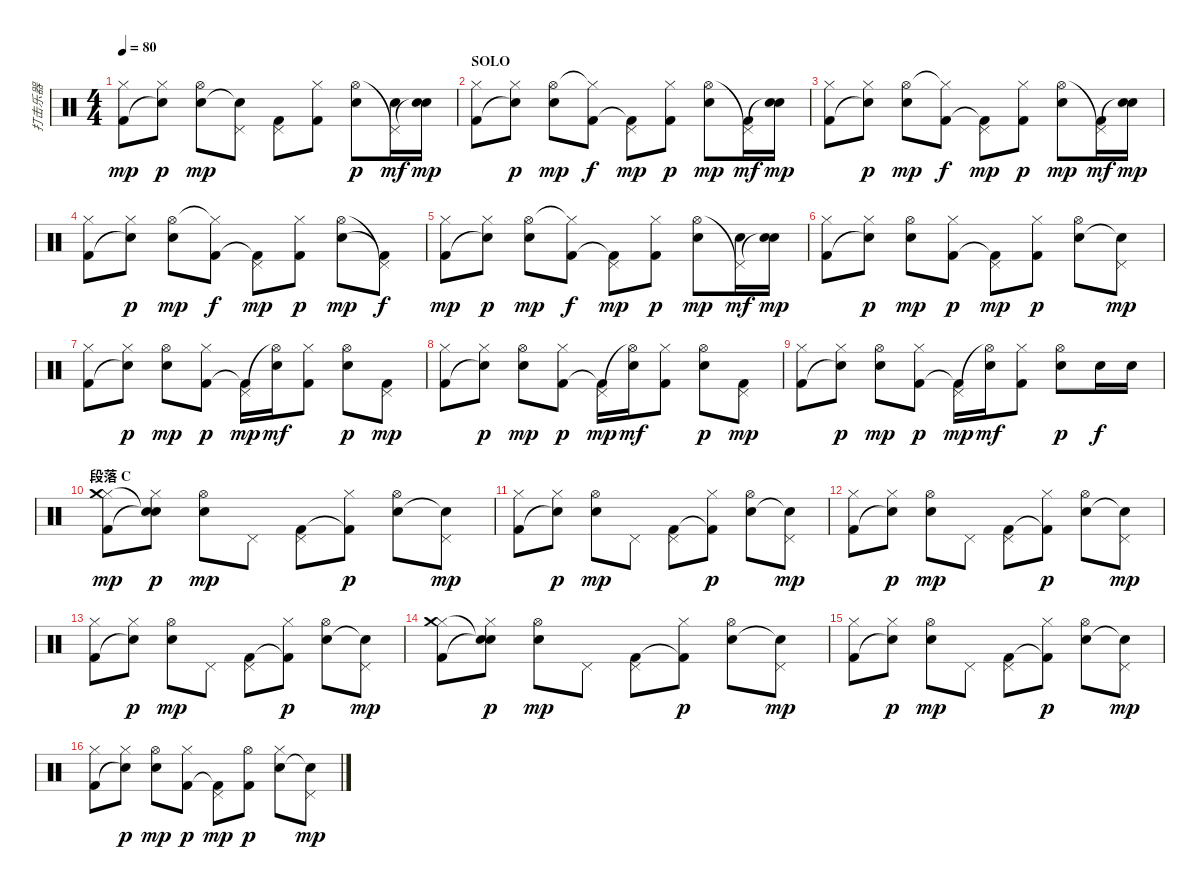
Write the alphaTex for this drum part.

\track ("打击乐器" "打击乐器") {instrument percussion}
\staff {score}
\articulation defaults
\ts (4 4)
\tempo 80
\clef neutral
\ks c
("Hi-Hat (closed)" "Kick (hit) 2").8{dy mp} ("Hi-Hat (closed)" "Snare (hit)"{t}).8{dy p} ("Hi-Hat (open)" "Electric Snare (hit)").8{dy mp} ("Pedal Hi-Hat (hit)" "Snare (hit)"{t}).8 ("Pedal Hi-Hat (hit)" "Kick (hit) 2").8 ("Hi-Hat (closed)" "Kick (hit) 2").8 ("Hi-Hat (open)" "Electric Snare (hit)").8{dy p} ("Pedal Hi-Hat (hit)"{t} "Electric Snare (hit)").16{dy mf} ("Snare (hit)"{t} "Electric Snare (hit)").16{dy mp} |
\section ("" "SOLO")
("Hi-Hat (closed)" "Kick (hit) 2").8 ("Hi-Hat (closed)" "Snare (hit)"{t}).8{dy p} ("Hi-Hat (open)" "Electric Snare (hit)").8{dy mp} ("Hi-Hat (closed)"{t} "Kick (hit) 2").8{dy f} ("Pedal Hi-Hat (hit)" "Kick (hit) 2"{t}).8{dy mp} ("Hi-Hat (closed)" "Kick (hit) 2").8{dy p} ("Hi-Hat (open)" "Electric Snare (hit)").8{dy mp} ("Pedal Hi-Hat (hit)"{t} "Kick (hit) 2").16{dy mf} ("Snare (hit)"{t} "Electric Snare (hit)").16{dy mp} |
("Hi-Hat (closed)" "Kick (hit) 2").8 ("Hi-Hat (closed)" "Snare (hit)"{t}).8{dy p} ("Hi-Hat (open)" "Electric Snare (hit)").8{dy mp} ("Hi-Hat (closed)"{t} "Kick (hit) 2").8{dy f} ("Pedal Hi-Hat (hit)" "Kick (hit) 2"{t}).8{dy mp} ("Hi-Hat (closed)" "Kick (hit) 2").8{dy p} ("Hi-Hat (open)" "Electric Snare (hit)").8{dy mp} ("Pedal Hi-Hat (hit)"{t} "Kick (hit) 2").16{dy mf} ("Snare (hit)"{t} "Electric Snare (hit)").16{dy mp} |
("Hi-Hat (closed)" "Kick (hit) 2").8 ("Hi-Hat (closed)" "Snare (hit)"{t}).8{dy p} ("Hi-Hat (open)" "Electric Snare (hit)").8{dy mp} ("Hi-Hat (closed)"{t} "Kick (hit) 2").8{dy f} ("Pedal Hi-Hat (hit)" "Kick (hit) 2"{t}).8{dy mp} ("Hi-Hat (closed)" "Kick (hit) 2").8{dy p} ("Hi-Hat (open)" "Electric Snare (hit)").8{dy mp} ("Pedal Hi-Hat (hit)"{t} "Kick (hit) 2"{t}).8{dy f} |
("Hi-Hat (closed)" "Kick (hit) 2").8{dy mp} ("Hi-Hat (closed)" "Snare (hit)"{t}).8{dy p} ("Hi-Hat (open)" "Electric Snare (hit)").8{dy mp} ("Hi-Hat (closed)"{t} "Kick (hit) 2").8{dy f} ("Pedal Hi-Hat (hit)" "Kick (hit) 2"{t}).8{dy mp} ("Hi-Hat (closed)" "Kick (hit) 2").8{dy p} ("Hi-Hat (open)" "Electric Snare (hit)").8{dy mp} ("Pedal Hi-Hat (hit)"{t} "Electric Snare (hit)").16{dy mf} ("Snare (hit)"{t} "Electric Snare (hit)").16{dy mp} |
("Hi-Hat (closed)" "Kick (hit) 2").8 ("Hi-Hat (closed)" "Snare (hit)"{t}).8{dy p} ("Hi-Hat (open)" "Electric Snare (hit)").8{dy mp} ("Hi-Hat (closed)" "Kick (hit) 2").8{dy p} ("Pedal Hi-Hat (hit)" "Kick (hit) 2"{t}).8{dy mp} ("Hi-Hat (closed)" "Kick (hit) 2").8{dy p} ("Hi-Hat (open)" "Electric Snare (hit)").8 ("Pedal Hi-Hat (hit)" "Snare (hit)"{t}).8{dy mp} |
("Hi-Hat (closed)" "Kick (hit) 2").8 ("Hi-Hat (closed)" "Snare (hit)"{t}).8{dy p} ("Hi-Hat (open)" "Electric Snare (hit)").8{dy mp} ("Hi-Hat (closed)" "Kick (hit) 2").8{dy p} ("Pedal Hi-Hat (hit)" "Kick (hit) 2"{t}).16{dy mp} ("Hi-Hat (open)"{t} "Electric Snare (hit)").16{dy mf} ("Hi-Hat (closed)" "Kick (hit) 2").8 ("Hi-Hat (open)" "Electric Snare (hit)").8{dy p} ("Pedal Hi-Hat (hit)" "Kick (hit) 2").8{dy mp} |
("Hi-Hat (closed)" "Kick (hit) 2").8 ("Hi-Hat (closed)" "Snare (hit)"{t}).8{dy p} ("Hi-Hat (open)" "Electric Snare (hit)").8{dy mp} ("Hi-Hat (closed)" "Kick (hit) 2").8{dy p} ("Pedal Hi-Hat (hit)" "Kick (hit) 2"{t}).16{dy mp} ("Hi-Hat (open)"{t} "Electric Snare (hit)").16{dy mf} ("Hi-Hat (closed)" "Kick (hit) 2").8 ("Hi-Hat (open)" "Electric Snare (hit)").8{dy p} ("Pedal Hi-Hat (hit)" "Kick (hit) 2").8{dy mp} |
("Hi-Hat (closed)" "Kick (hit) 2").8 ("Hi-Hat (closed)" "Snare (hit)"{t}).8{dy p} ("Hi-Hat (open)" "Electric Snare (hit)").8{dy mp} ("Hi-Hat (closed)" "Kick (hit) 2").8{dy p} ("Pedal Hi-Hat (hit)" "Kick (hit) 2"{t}).16{dy mp} ("Hi-Hat (open)"{t} "Electric Snare (hit)").16{dy mf} ("Hi-Hat (closed)" "Kick (hit) 2").8 ("Hi-Hat (open)" "Electric Snare (hit)").8{dy p} "Electric Snare (hit)".16{dy f} "Electric Snare (hit)".16 |
\section ("" "段落 C")
("Hi-Hat (closed)" "Kick (hit) 2" "Crash medium (hit)").8{dy mp} ("Hi-Hat (closed)" "Snare (hit)"{t} "Snare (hit)"{t}).8{dy p} ("Hi-Hat (open)" "Electric Snare (hit)").8{dy mp} "Pedal Hi-Hat (hit)".8 ("Pedal Hi-Hat (hit)" "Kick (hit) 2").8 ("Hi-Hat (closed)" "Kick (hit) 2"{t}).8{dy p} ("Hi-Hat (open)" "Electric Snare (hit)").8 ("Pedal Hi-Hat (hit)" "Snare (hit)"{t}).8{dy mp} |
("Hi-Hat (closed)" "Kick (hit) 2").8 ("Hi-Hat (closed)" "Snare (hit)"{t}).8{dy p} ("Hi-Hat (open)" "Electric Snare (hit)").8{dy mp} "Pedal Hi-Hat (hit)".8 ("Pedal Hi-Hat (hit)" "Kick (hit) 2").8 ("Hi-Hat (closed)" "Kick (hit) 2"{t}).8{dy p} ("Hi-Hat (open)" "Electric Snare (hit)").8 ("Pedal Hi-Hat (hit)" "Snare (hit)"{t}).8{dy mp} |
("Hi-Hat (closed)" "Kick (hit) 2").8 ("Hi-Hat (closed)" "Snare (hit)"{t}).8{dy p} ("Hi-Hat (open)" "Electric Snare (hit)").8{dy mp} "Pedal Hi-Hat (hit)".8 ("Pedal Hi-Hat (hit)" "Kick (hit) 2").8 ("Hi-Hat (closed)" "Kick (hit) 2"{t}).8{dy p} ("Hi-Hat (open)" "Electric Snare (hit)").8 ("Pedal Hi-Hat (hit)" "Snare (hit)"{t}).8{dy mp} |
("Hi-Hat (closed)" "Kick (hit) 2").8 ("Hi-Hat (closed)" "Snare (hit)"{t}).8{dy p} ("Hi-Hat (open)" "Electric Snare (hit)").8{dy mp} "Pedal Hi-Hat (hit)".8 ("Pedal Hi-Hat (hit)" "Kick (hit) 2").8 ("Hi-Hat (closed)" "Kick (hit) 2"{t}).8{dy p} ("Hi-Hat (open)" "Electric Snare (hit)").8 ("Pedal Hi-Hat (hit)" "Snare (hit)"{t}).8{dy mp} |
("Hi-Hat (closed)" "Kick (hit) 2" "Crash medium (hit)").8 ("Hi-Hat (closed)" "Snare (hit)"{t} "Snare (hit)"{t}).8{dy p} ("Hi-Hat (open)" "Electric Snare (hit)").8{dy mp} "Pedal Hi-Hat (hit)".8 ("Pedal Hi-Hat (hit)" "Kick (hit) 2").8 ("Hi-Hat (closed)" "Kick (hit) 2"{t}).8{dy p} ("Hi-Hat (open)" "Electric Snare (hit)").8 ("Pedal Hi-Hat (hit)" "Snare (hit)"{t}).8{dy mp} |
("Hi-Hat (closed)" "Kick (hit) 2").8 ("Hi-Hat (closed)" "Snare (hit)"{t}).8{dy p} ("Hi-Hat (open)" "Electric Snare (hit)").8{dy mp} "Pedal Hi-Hat (hit)".8 ("Pedal Hi-Hat (hit)" "Kick (hit) 2").8 ("Hi-Hat (closed)" "Kick (hit) 2"{t}).8{dy p} ("Hi-Hat (open)" "Electric Snare (hit)").8 ("Pedal Hi-Hat (hit)" "Snare (hit)"{t}).8{dy mp} |
("Hi-Hat (closed)" "Kick (hit) 2").8 ("Hi-Hat (closed)" "Snare (hit)"{t}).8{dy p} ("Hi-Hat (open)" "Electric Snare (hit)").8{dy mp} ("Hi-Hat (closed)" "Kick (hit) 2").8{dy p} ("Pedal Hi-Hat (hit)" "Kick (hit) 2"{t}).8{dy mp} ("Hi-Hat (open)" "Kick (hit) 2").8{dy p} ("Hi-Hat (closed)" "Electric Snare (hit)").8 ("Pedal Hi-Hat (hit)" "Snare (hit)"{t}).8{dy mp}
